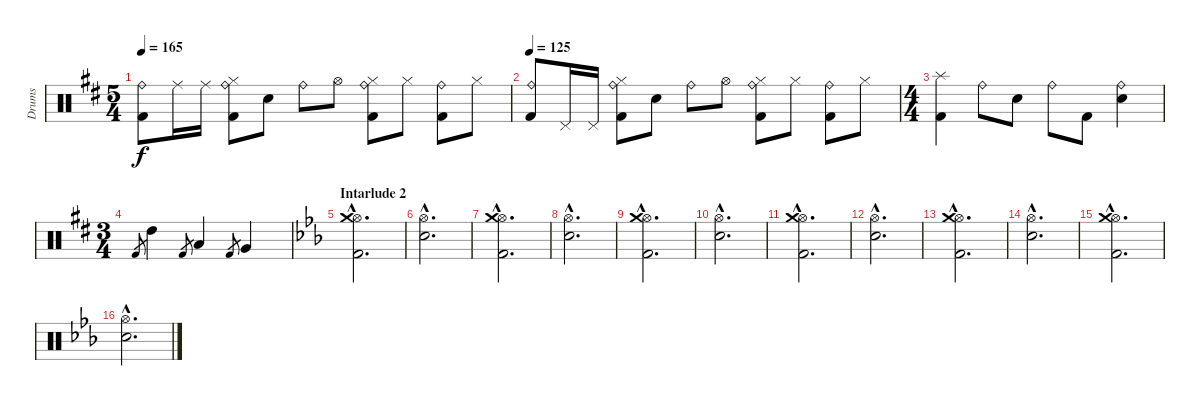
\track ("Drums" "Drums") {instrument percussion}
\staff {score}
\articulation defaults
\ts (5 4)
\tempo 165
\clef neutral
\ks d
("Ride (bell)" "Kick (hit) 2").8{dy f} "Ride (middle)".16 "Ride (middle)".16 ("Kick (hit) 2" "Ride (bell)" "Hi-Hat (closed)").8 "Electric Snare (hit)".8 "Ride (bell)".8 "Hi-Hat (open)".8 ("Kick (hit) 2" "Hi-Hat (closed)" "Ride (bell)").8 "Hi-Hat (closed)".8 ("Kick (hit) 2" "Ride (bell)").8 "Hi-Hat (closed)".8 |
\tempo 125
("Ride (bell)" "Kick (hit) 2").8 "Pedal Hi-Hat (hit)".16 "Pedal Hi-Hat (hit)".16 ("Kick (hit) 2" "Ride (bell)" "Hi-Hat (closed)").8 "Electric Snare (hit)".8 "Ride (bell)".8 "Hi-Hat (open)".8 ("Kick (hit) 2" "Hi-Hat (closed)" "Ride (bell)").8 "Hi-Hat (closed)".8 ("Kick (hit) 2" "Ride (bell)").8 "Hi-Hat (closed)".8 |
\ts (4 4)
("Kick (hit) 2" "Splash (hit)").4 "Ride (bell)".8 "Electric Snare (hit)".8 "Ride (bell)".8 "Kick (hit) 2".8 ("Electric Snare (hit)" "Ride (bell)").4 |
\ts (3 4)
"Kick (hit) 2".8{gr} "High Tom (hit)".4 "Kick (hit) 2".8{gr} "Low Tom (hit)".4 "Kick (hit) 2".8{gr} "Very Low Tom (hit)".4 |
\section ("" "Intarlude 2")
\ks eb
("Kick (hit) 2"{hac} "Hi-Hat (open)"{hac} "Crash medium (hit)"{hac}).2{d} |
("Electric Snare (hit)"{hac} "Hi-Hat (open)"{hac}).2{d} |
("Kick (hit) 2"{hac} "Hi-Hat (open)"{hac} "Crash medium (hit)"{hac}).2{d} |
("Electric Snare (hit)"{hac} "Hi-Hat (open)"{hac}).2{d} |
("Kick (hit) 2"{hac} "Hi-Hat (open)"{hac} "Crash medium (hit)"{hac}).2{d} |
("Electric Snare (hit)"{hac} "Hi-Hat (open)"{hac}).2{d} |
("Kick (hit) 2"{hac} "Hi-Hat (open)"{hac} "Crash medium (hit)"{hac}).2{d} |
("Electric Snare (hit)"{hac} "Hi-Hat (open)"{hac}).2{d} |
("Kick (hit) 2"{hac} "Hi-Hat (open)"{hac} "Crash medium (hit)"{hac}).2{d} |
("Electric Snare (hit)"{hac} "Hi-Hat (open)"{hac}).2{d} |
("Kick (hit) 2"{hac} "Hi-Hat (open)"{hac} "Crash medium (hit)"{hac}).2{d} |
("Electric Snare (hit)"{hac} "Hi-Hat (open)"{hac}).2{d}
